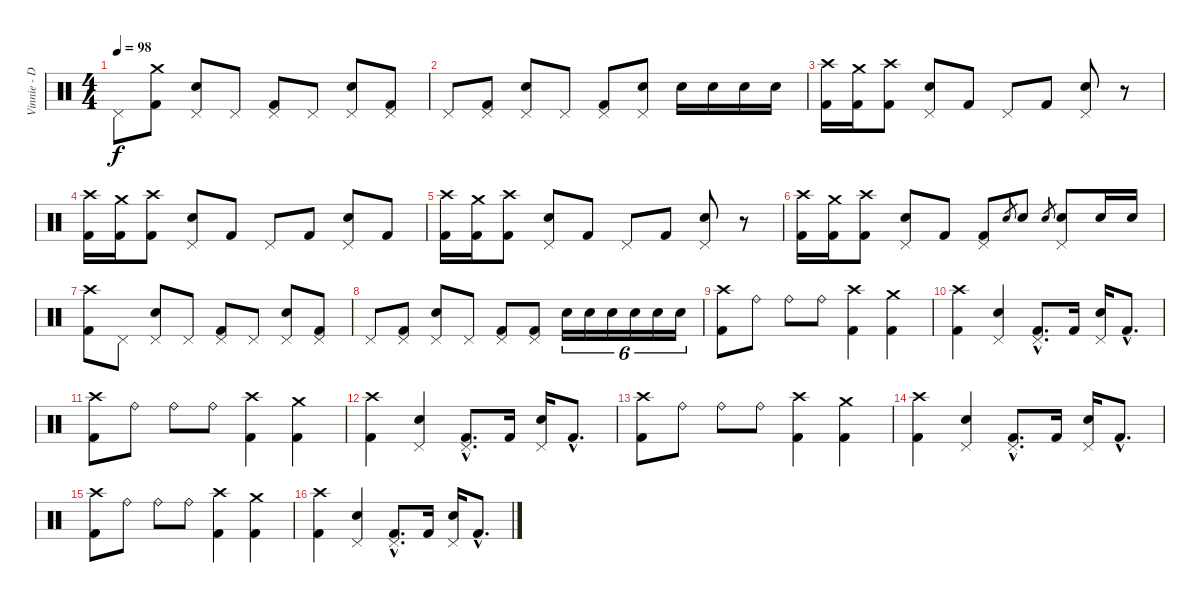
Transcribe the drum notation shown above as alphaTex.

\track ("Vinnie - Drums" "Vinnie - D") {instrument percussion}
\staff {score}
\articulation defaults
\ts (4 4)
\tempo 98
\clef neutral
\ks c "Pedal Hi-Hat (hit)".8{dy f}
("Crash medium (hit)" "Kick (hit) 2").8 ("Pedal Hi-Hat (hit)" "Electric Snare (hit)").8 "Pedal Hi-Hat (hit)".8 ("Pedal Hi-Hat (hit)" "Kick (hit) 2").8 "Pedal Hi-Hat (hit)".8 ("Pedal Hi-Hat (hit)" "Electric Snare (hit)").8 ("Pedal Hi-Hat (hit)" "Kick (hit) 2").8 |
"Pedal Hi-Hat (hit)".8 ("Pedal Hi-Hat (hit)" "Kick (hit) 2").8 ("Pedal Hi-Hat (hit)" "Electric Snare (hit)").8 "Pedal Hi-Hat (hit)".8 ("Pedal Hi-Hat (hit)" "Kick (hit) 2").8 ("Pedal Hi-Hat (hit)" "Electric Snare (hit)").8 "Electric Snare (hit)".16 "Electric Snare (hit)".16 "Electric Snare (hit)".16 "Electric Snare (hit)".16 |
("Crash high (hit)" "Kick (hit) 2").16 ("Crash medium (hit)" "Kick (hit) 2").16 ("Crash high (hit)" "Kick (hit) 2").8 ("Pedal Hi-Hat (hit)" "Electric Snare (hit)").8 "Kick (hit) 2".8 "Pedal Hi-Hat (hit)".8 "Kick (hit) 2".8 ("Pedal Hi-Hat (hit)" "Electric Snare (hit)").8 r.8 |
("Crash high (hit)" "Kick (hit) 2").16 ("Crash medium (hit)" "Kick (hit) 2").16 ("Crash high (hit)" "Kick (hit) 2").8 ("Pedal Hi-Hat (hit)" "Electric Snare (hit)").8 "Kick (hit) 2".8 "Pedal Hi-Hat (hit)".8 "Kick (hit) 2".8 ("Pedal Hi-Hat (hit)" "Electric Snare (hit)").8 "Kick (hit) 2".8 |
("Crash high (hit)" "Kick (hit) 2").16 ("Crash medium (hit)" "Kick (hit) 2").16 ("Crash high (hit)" "Kick (hit) 2").8 ("Pedal Hi-Hat (hit)" "Electric Snare (hit)").8 "Kick (hit) 2".8 "Pedal Hi-Hat (hit)".8 "Kick (hit) 2".8 ("Pedal Hi-Hat (hit)" "Electric Snare (hit)").8 r.8 |
("Crash high (hit)" "Kick (hit) 2").16 ("Crash medium (hit)" "Kick (hit) 2").16 ("Crash high (hit)" "Kick (hit) 2").8 ("Pedal Hi-Hat (hit)" "Electric Snare (hit)").8 "Kick (hit) 2".8 ("Pedal Hi-Hat (hit)" "Kick (hit) 2").8 "Electric Snare (hit)".8{gr} "Electric Snare (hit)".8 "Electric Snare (hit)".8{gr} ("Pedal Hi-Hat (hit)" "Electric Snare (hit)").8 "Electric Snare (hit)".16 "Electric Snare (hit)".16 |
("Crash high (hit)" "Kick (hit) 2").8 "Pedal Hi-Hat (hit)".8 ("Pedal Hi-Hat (hit)" "Electric Snare (hit)").8 "Pedal Hi-Hat (hit)".8 ("Pedal Hi-Hat (hit)" "Kick (hit) 2").8 "Pedal Hi-Hat (hit)".8 ("Pedal Hi-Hat (hit)" "Electric Snare (hit)").8 ("Pedal Hi-Hat (hit)" "Kick (hit) 2").8 |
"Pedal Hi-Hat (hit)".8 ("Pedal Hi-Hat (hit)" "Kick (hit) 2").8 ("Pedal Hi-Hat (hit)" "Electric Snare (hit)").8 "Pedal Hi-Hat (hit)".8 ("Pedal Hi-Hat (hit)" "Kick (hit) 2").8 ("Pedal Hi-Hat (hit)" "Kick (hit) 2").8 "Electric Snare (hit)".16{tu (6 4)} "Electric Snare (hit)".16{tu (6 4)} "Electric Snare (hit)".16{tu (6 4)} "Electric Snare (hit)".16{tu (6 4)} "Electric Snare (hit)".16{tu (6 4)} "Electric Snare (hit)".16{tu (6 4)} |
("Crash high (hit)" "Kick (hit) 2").8 "Ride (bell)".8 "Ride (bell)".8 "Ride (bell)".8 ("Crash high (hit)" "Kick (hit) 2").4 ("Crash medium (hit)" "Kick (hit) 2").4 |
("Crash high (hit)" "Kick (hit) 2").4 ("Pedal Hi-Hat (hit)" "Electric Snare (hit)").4 ("Pedal Hi-Hat (hit)"{hac} "Kick (hit) 2"{hac}).8{d} "Kick (hit) 2".16 ("Pedal Hi-Hat (hit)" "Electric Snare (hit)").16 "Kick (hit) 2"{hac}.8{d} |
("Crash high (hit)" "Kick (hit) 2").8 "Ride (bell)".8 "Ride (bell)".8 "Ride (bell)".8 ("Crash high (hit)" "Kick (hit) 2").4 ("Crash medium (hit)" "Kick (hit) 2").4 |
("Crash high (hit)" "Kick (hit) 2").4 ("Pedal Hi-Hat (hit)" "Electric Snare (hit)").4 ("Pedal Hi-Hat (hit)"{hac} "Kick (hit) 2"{hac}).8{d} "Kick (hit) 2".16 ("Pedal Hi-Hat (hit)" "Electric Snare (hit)").16 "Kick (hit) 2"{hac}.8{d} |
("Crash high (hit)" "Kick (hit) 2").8 "Ride (bell)".8 "Ride (bell)".8 "Ride (bell)".8 ("Crash high (hit)" "Kick (hit) 2").4 ("Crash medium (hit)" "Kick (hit) 2").4 |
("Crash high (hit)" "Kick (hit) 2").4 ("Pedal Hi-Hat (hit)" "Electric Snare (hit)").4 ("Pedal Hi-Hat (hit)"{hac} "Kick (hit) 2"{hac}).8{d} "Kick (hit) 2".16 ("Pedal Hi-Hat (hit)" "Electric Snare (hit)").16 "Kick (hit) 2"{hac}.8{d} |
("Crash high (hit)" "Kick (hit) 2").8 "Ride (bell)".8 "Ride (bell)".8 "Ride (bell)".8 ("Crash high (hit)" "Kick (hit) 2").4 ("Crash medium (hit)" "Kick (hit) 2").4 |
("Crash high (hit)" "Kick (hit) 2").4 ("Pedal Hi-Hat (hit)" "Electric Snare (hit)").4 ("Pedal Hi-Hat (hit)"{hac} "Kick (hit) 2"{hac}).8{d} "Kick (hit) 2".16 ("Pedal Hi-Hat (hit)" "Electric Snare (hit)").16 "Kick (hit) 2"{hac}.8{d}
